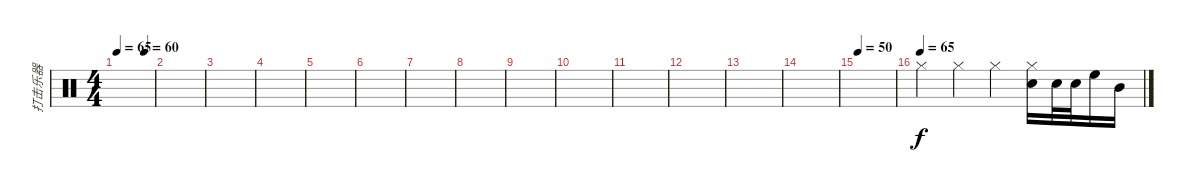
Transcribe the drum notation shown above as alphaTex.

\track ("打击乐器" "打击乐器") {instrument percussion}
\staff {score}
\articulation defaults
\ts (4 4)
\tempo 65
\tempo (60 0.75)
\tempo 65
\clef neutral
\ks c
|
|
|
|
|
|
|
|
|
|
|
|
|
|
\tempo 50
|
\tempo (65)
"Hi-Hat (closed)".4 "Hi-Hat (closed)".4 "Hi-Hat (closed)".4 ("Hi-Hat (closed)" "Snare (hit) 2").16 "Snare (hit) 2".32 "Snare (hit) 2".32 "High Floor Tom (hit)".16 "Mid Tom (hit)".16
